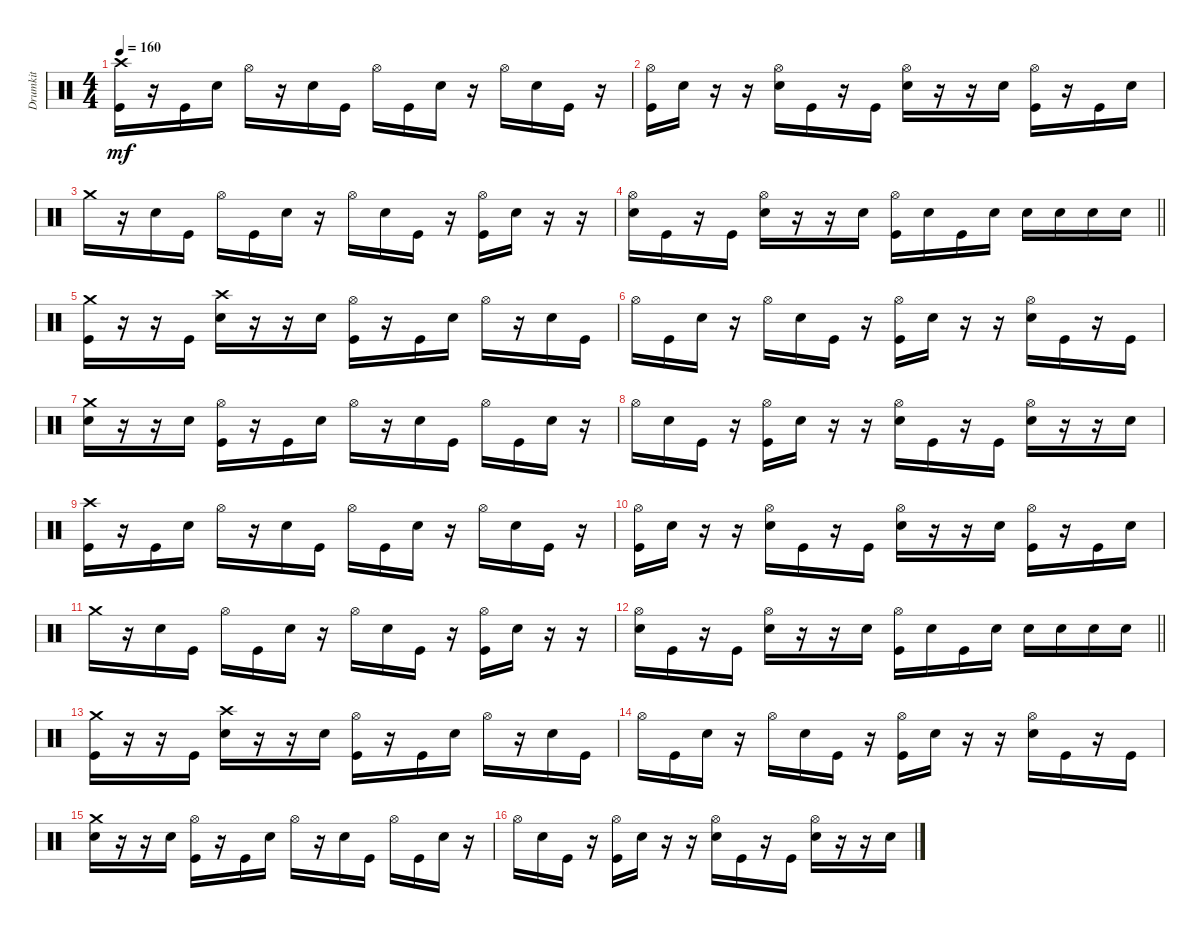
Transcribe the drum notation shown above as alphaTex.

\track ("Drumkit" "Drumkit") {instrument percussion}
\staff {score}
\articulation defaults
\ts (4 4)
\tempo 160
\clef neutral
\ks c
("Kick (hit)" "Crash high (hit)").16{dy mf} r.16 "Kick (hit)".16 "Snare (hit) 2".16 "Hi-Hat (open)".16 r.16 "Snare (hit) 2".16 "Kick (hit)".16 "Hi-Hat (open)".16 "Kick (hit)".16 "Snare (hit) 2".16 r.16 "Hi-Hat (open)".16 "Snare (hit) 2".16 "Kick (hit)".16 r.16 |
("Kick (hit)" "Hi-Hat (open)").16 "Snare (hit) 2".16 r.16 r.16 ("Snare (hit) 2" "Hi-Hat (open)").16 "Kick (hit)".16 r.16 "Kick (hit)".16 ("Snare (hit) 2" "Hi-Hat (open)").16 r.16 r.16 "Snare (hit) 2".16 ("Kick (hit)" "Hi-Hat (open)").16 r.16 "Kick (hit)".16 "Snare (hit) 2".16 |
"Crash medium (hit)".16 r.16 "Snare (hit) 2".16 "Kick (hit)".16 "Hi-Hat (open)".16 "Kick (hit)".16 "Snare (hit) 2".16 r.16 "Hi-Hat (open)".16 "Snare (hit) 2".16 "Kick (hit)".16 r.16 ("Kick (hit)" "Hi-Hat (open)").16 "Snare (hit) 2".16 r.16 r.16 |
\barLineRight lightlight
("Snare (hit) 2" "Hi-Hat (open)").16 "Kick (hit)".16 r.16 "Kick (hit)".16 ("Snare (hit) 2" "Hi-Hat (open)").16 r.16 r.16 "Snare (hit) 2".16 ("Kick (hit)" "Hi-Hat (open)").16 "Snare (hit) 2".16 "Kick (hit)".16 "Snare (hit) 2".16 "Snare (hit) 2".16 "Snare (hit) 2".16 "Snare (hit) 2".16 "Snare (hit) 2".16 |
("Kick (hit)" "Crash medium (hit)").16 r.16 r.16 "Kick (hit)".16 ("Snare (hit) 2" "Crash high (hit)").16 r.16 r.16 "Snare (hit) 2".16 ("Hi-Hat (open)" "Kick (hit)").16 r.16 "Kick (hit)".16 "Snare (hit) 2".16 "Hi-Hat (open)".16 r.16 "Snare (hit) 2".16 "Kick (hit)".16 |
"Hi-Hat (open)".16 "Kick (hit)".16 "Snare (hit) 2".16 r.16 "Hi-Hat (open)".16 "Snare (hit) 2".16 "Kick (hit)".16 r.16 ("Kick (hit)" "Hi-Hat (open)").16 "Snare (hit) 2".16 r.16 r.16 ("Snare (hit) 2" "Hi-Hat (open)").16 "Kick (hit)".16 r.16 "Kick (hit)".16 |
("Snare (hit) 2" "Crash medium (hit)").16 r.16 r.16 "Snare (hit) 2".16 ("Kick (hit)" "Hi-Hat (open)").16 r.16 "Kick (hit)".16 "Snare (hit) 2".16 "Hi-Hat (open)".16 r.16 "Snare (hit) 2".16 "Kick (hit)".16 "Hi-Hat (open)".16 "Kick (hit)".16 "Snare (hit) 2".16 r.16 |
"Hi-Hat (open)".16 "Snare (hit) 2".16 "Kick (hit)".16 r.16 ("Kick (hit)" "Hi-Hat (open)").16 "Snare (hit) 2".16 r.16 r.16 ("Snare (hit) 2" "Hi-Hat (open)").16 "Kick (hit)".16 r.16 "Kick (hit)".16 ("Snare (hit) 2" "Hi-Hat (open)").16 r.16 r.16 "Snare (hit) 2".16 |
("Kick (hit)" "Crash high (hit)").16 r.16 "Kick (hit)".16 "Snare (hit) 2".16 "Hi-Hat (open)".16 r.16 "Snare (hit) 2".16 "Kick (hit)".16 "Hi-Hat (open)".16 "Kick (hit)".16 "Snare (hit) 2".16 r.16 "Hi-Hat (open)".16 "Snare (hit) 2".16 "Kick (hit)".16 r.16 |
("Kick (hit)" "Hi-Hat (open)").16 "Snare (hit) 2".16 r.16 r.16 ("Snare (hit) 2" "Hi-Hat (open)").16 "Kick (hit)".16 r.16 "Kick (hit)".16 ("Snare (hit) 2" "Hi-Hat (open)").16 r.16 r.16 "Snare (hit) 2".16 ("Kick (hit)" "Hi-Hat (open)").16 r.16 "Kick (hit)".16 "Snare (hit) 2".16 |
"Crash medium (hit)".16 r.16 "Snare (hit) 2".16 "Kick (hit)".16 "Hi-Hat (open)".16 "Kick (hit)".16 "Snare (hit) 2".16 r.16 "Hi-Hat (open)".16 "Snare (hit) 2".16 "Kick (hit)".16 r.16 ("Kick (hit)" "Hi-Hat (open)").16 "Snare (hit) 2".16 r.16 r.16 |
\barLineRight lightlight
("Snare (hit) 2" "Hi-Hat (open)").16 "Kick (hit)".16 r.16 "Kick (hit)".16 ("Snare (hit) 2" "Hi-Hat (open)").16 r.16 r.16 "Snare (hit) 2".16 ("Kick (hit)" "Hi-Hat (open)").16 "Snare (hit) 2".16 "Kick (hit)".16 "Snare (hit) 2".16 "Snare (hit) 2".16 "Snare (hit) 2".16 "Snare (hit) 2".16 "Snare (hit) 2".16 |
("Kick (hit)" "Crash medium (hit)").16 r.16 r.16 "Kick (hit)".16 ("Snare (hit) 2" "Crash high (hit)").16 r.16 r.16 "Snare (hit) 2".16 ("Hi-Hat (open)" "Kick (hit)").16 r.16 "Kick (hit)".16 "Snare (hit) 2".16 "Hi-Hat (open)".16 r.16 "Snare (hit) 2".16 "Kick (hit)".16 |
"Hi-Hat (open)".16 "Kick (hit)".16 "Snare (hit) 2".16 r.16 "Hi-Hat (open)".16 "Snare (hit) 2".16 "Kick (hit)".16 r.16 ("Kick (hit)" "Hi-Hat (open)").16 "Snare (hit) 2".16 r.16 r.16 ("Snare (hit) 2" "Hi-Hat (open)").16 "Kick (hit)".16 r.16 "Kick (hit)".16 |
("Snare (hit) 2" "Crash medium (hit)").16 r.16 r.16 "Snare (hit) 2".16 ("Kick (hit)" "Hi-Hat (open)").16 r.16 "Kick (hit)".16 "Snare (hit) 2".16 "Hi-Hat (open)".16 r.16 "Snare (hit) 2".16 "Kick (hit)".16 "Hi-Hat (open)".16 "Kick (hit)".16 "Snare (hit) 2".16 r.16 |
"Hi-Hat (open)".16 "Snare (hit) 2".16 "Kick (hit)".16 r.16 ("Kick (hit)" "Hi-Hat (open)").16 "Snare (hit) 2".16 r.16 r.16 ("Snare (hit) 2" "Hi-Hat (open)").16 "Kick (hit)".16 r.16 "Kick (hit)".16 ("Snare (hit) 2" "Hi-Hat (open)").16 r.16 r.16 "Snare (hit) 2".16
